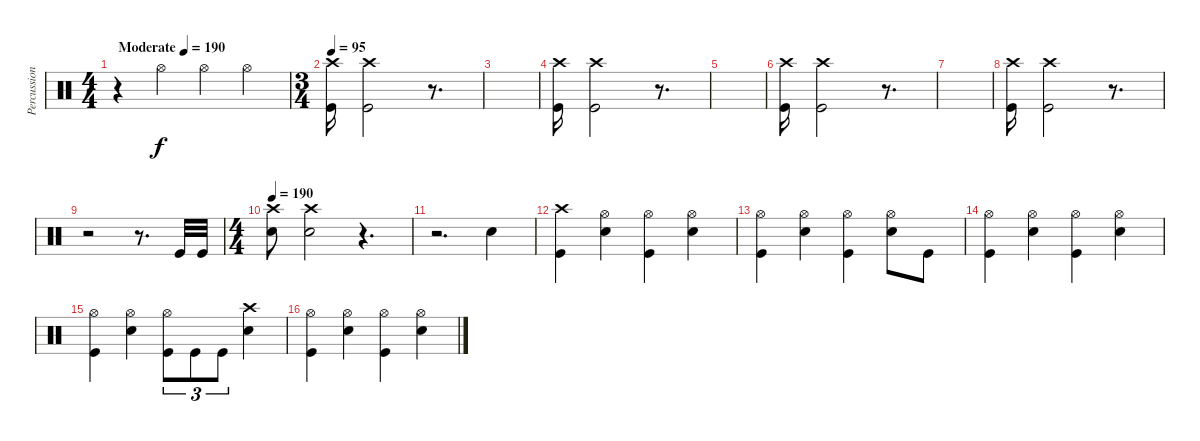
\track ("Percussion" "Percussion") {instrument percussion}
\staff {score}
\articulation defaults
\ts (4 4)
\tempo (190 "Moderate")
\tempo 95
\tempo (190 "Moderate")
\clef neutral
\ks c
r.4{dy f} "Hi-Hat (open)".4 "Hi-Hat (open)".4 "Hi-Hat (open)".4 |
\ts (3 4)
\tempo 95
("Crash high (hit)" "Kick (hit)").16 ("Crash high (hit)" "Kick (hit)").2 r.8{d} |
|
("Crash high (hit)" "Kick (hit)").16 ("Crash high (hit)" "Kick (hit)").2 r.8{d} |
|
("Crash high (hit)" "Kick (hit)").16 ("Crash high (hit)" "Kick (hit)").2 r.8{d} |
|
("Crash high (hit)" "Kick (hit)").16 ("Crash high (hit)" "Kick (hit)").2 r.8{d} |
r.2 r.8{d} "Kick (hit)".32 "Kick (hit)".32 |
\ts (4 4)
\tempo 190
("Crash high (hit)" "Snare (hit) 2").8 ("Crash high (hit)" "Snare (hit) 2").2 r.4{d} |
r.2{d} "Snare (hit) 2".4 |
("Crash high (hit)" "Kick (hit)").4 ("Hi-Hat (open)" "Snare (hit) 2").4 ("Hi-Hat (open)" "Kick (hit)").4 ("Hi-Hat (open)" "Snare (hit) 2").4 |
("Hi-Hat (open)" "Kick (hit)").4 ("Hi-Hat (open)" "Snare (hit) 2").4 ("Hi-Hat (open)" "Kick (hit)").4 ("Hi-Hat (open)" "Snare (hit) 2").8 "Kick (hit)".8 |
("Hi-Hat (open)" "Kick (hit)").4 ("Hi-Hat (open)" "Snare (hit) 2").4 ("Hi-Hat (open)" "Kick (hit)").4 ("Hi-Hat (open)" "Snare (hit) 2").4 |
("Hi-Hat (open)" "Kick (hit)").4 ("Hi-Hat (open)" "Snare (hit) 2").4 ("Hi-Hat (open)" "Kick (hit)").8{tu (3 2)} "Kick (hit)".8{tu (3 2)} "Kick (hit)".8{tu (3 2)} ("Crash high (hit)" "Snare (hit) 2").4 |
("Hi-Hat (open)" "Kick (hit)").4 ("Hi-Hat (open)" "Snare (hit) 2").4 ("Hi-Hat (open)" "Kick (hit)").4 ("Hi-Hat (open)" "Snare (hit) 2").4
